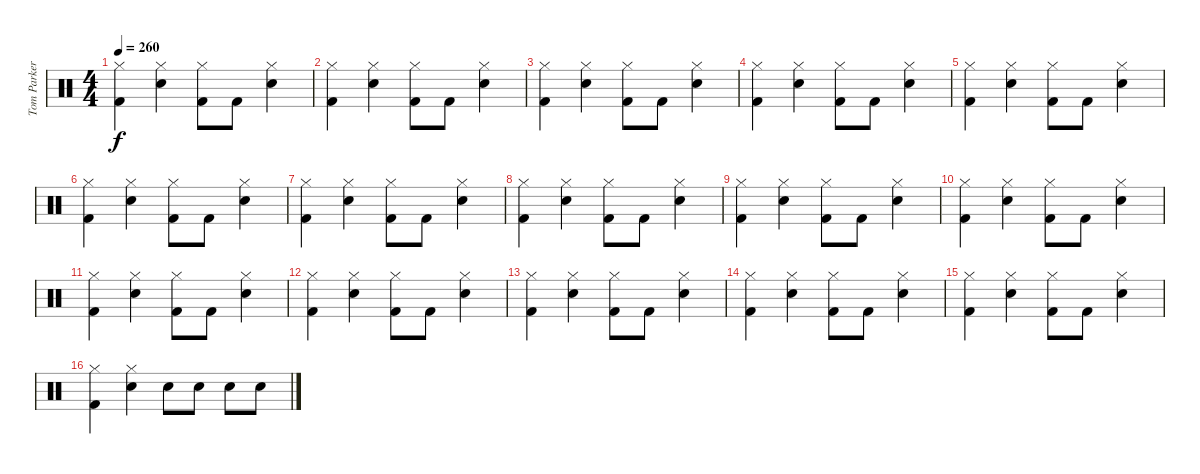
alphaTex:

\track ("Tom Parker" "Tom Parker") {instrument percussion}
\staff {score}
\articulation defaults
\ts (4 4)
\tempo 260
\clef neutral
\ks c
("Hi-Hat (closed)" "Kick (hit) 2").4{dy f} ("Hi-Hat (closed)" "Electric Snare (hit)").4 ("Hi-Hat (closed)" "Kick (hit) 2").8 "Kick (hit) 2".8 ("Hi-Hat (closed)" "Electric Snare (hit)").4 |
("Hi-Hat (closed)" "Kick (hit) 2").4 ("Hi-Hat (closed)" "Electric Snare (hit)").4 ("Hi-Hat (closed)" "Kick (hit) 2").8 "Kick (hit) 2".8 ("Hi-Hat (closed)" "Electric Snare (hit)").4 |
("Hi-Hat (closed)" "Kick (hit) 2").4 ("Hi-Hat (closed)" "Electric Snare (hit)").4 ("Hi-Hat (closed)" "Kick (hit) 2").8 "Kick (hit) 2".8 ("Hi-Hat (closed)" "Electric Snare (hit)").4 |
("Hi-Hat (closed)" "Kick (hit) 2").4 ("Hi-Hat (closed)" "Electric Snare (hit)").4 ("Hi-Hat (closed)" "Kick (hit) 2").8 "Kick (hit) 2".8 ("Hi-Hat (closed)" "Electric Snare (hit)").4 |
("Hi-Hat (closed)" "Kick (hit) 2").4 ("Hi-Hat (closed)" "Electric Snare (hit)").4 ("Hi-Hat (closed)" "Kick (hit) 2").8 "Kick (hit) 2".8 ("Hi-Hat (closed)" "Electric Snare (hit)").4 |
("Hi-Hat (closed)" "Kick (hit) 2").4 ("Hi-Hat (closed)" "Electric Snare (hit)").4 ("Hi-Hat (closed)" "Kick (hit) 2").8 "Kick (hit) 2".8 ("Hi-Hat (closed)" "Electric Snare (hit)").4 |
("Hi-Hat (closed)" "Kick (hit) 2").4 ("Hi-Hat (closed)" "Electric Snare (hit)").4 ("Hi-Hat (closed)" "Kick (hit) 2").8 "Kick (hit) 2".8 ("Hi-Hat (closed)" "Electric Snare (hit)").4 |
("Hi-Hat (closed)" "Kick (hit) 2").4 ("Hi-Hat (closed)" "Electric Snare (hit)").4 ("Hi-Hat (closed)" "Kick (hit) 2").8 "Kick (hit) 2".8 ("Hi-Hat (closed)" "Electric Snare (hit)").4 |
("Hi-Hat (closed)" "Kick (hit) 2").4 ("Hi-Hat (closed)" "Electric Snare (hit)").4 ("Hi-Hat (closed)" "Kick (hit) 2").8 "Kick (hit) 2".8 ("Hi-Hat (closed)" "Electric Snare (hit)").4 |
("Hi-Hat (closed)" "Kick (hit) 2").4 ("Hi-Hat (closed)" "Electric Snare (hit)").4 ("Hi-Hat (closed)" "Kick (hit) 2").8 "Kick (hit) 2".8 ("Hi-Hat (closed)" "Electric Snare (hit)").4 |
("Hi-Hat (closed)" "Kick (hit) 2").4 ("Hi-Hat (closed)" "Electric Snare (hit)").4 ("Hi-Hat (closed)" "Kick (hit) 2").8 "Kick (hit) 2".8 ("Hi-Hat (closed)" "Electric Snare (hit)").4 |
("Hi-Hat (closed)" "Kick (hit) 2").4 ("Hi-Hat (closed)" "Electric Snare (hit)").4 ("Hi-Hat (closed)" "Kick (hit) 2").8 "Kick (hit) 2".8 ("Hi-Hat (closed)" "Electric Snare (hit)").4 |
("Hi-Hat (closed)" "Kick (hit) 2").4 ("Hi-Hat (closed)" "Electric Snare (hit)").4 ("Hi-Hat (closed)" "Kick (hit) 2").8 "Kick (hit) 2".8 ("Hi-Hat (closed)" "Electric Snare (hit)").4 |
("Hi-Hat (closed)" "Kick (hit) 2").4 ("Hi-Hat (closed)" "Electric Snare (hit)").4 ("Hi-Hat (closed)" "Kick (hit) 2").8 "Kick (hit) 2".8 ("Hi-Hat (closed)" "Electric Snare (hit)").4 |
("Hi-Hat (closed)" "Kick (hit) 2").4 ("Hi-Hat (closed)" "Electric Snare (hit)").4 ("Hi-Hat (closed)" "Kick (hit) 2").8 "Kick (hit) 2".8 ("Hi-Hat (closed)" "Electric Snare (hit)").4 |
("Hi-Hat (closed)" "Kick (hit) 2").4 ("Hi-Hat (closed)" "Electric Snare (hit)").4 "Electric Snare (hit)".8 "Electric Snare (hit)".8 "Electric Snare (hit)".8 "Electric Snare (hit)".8
